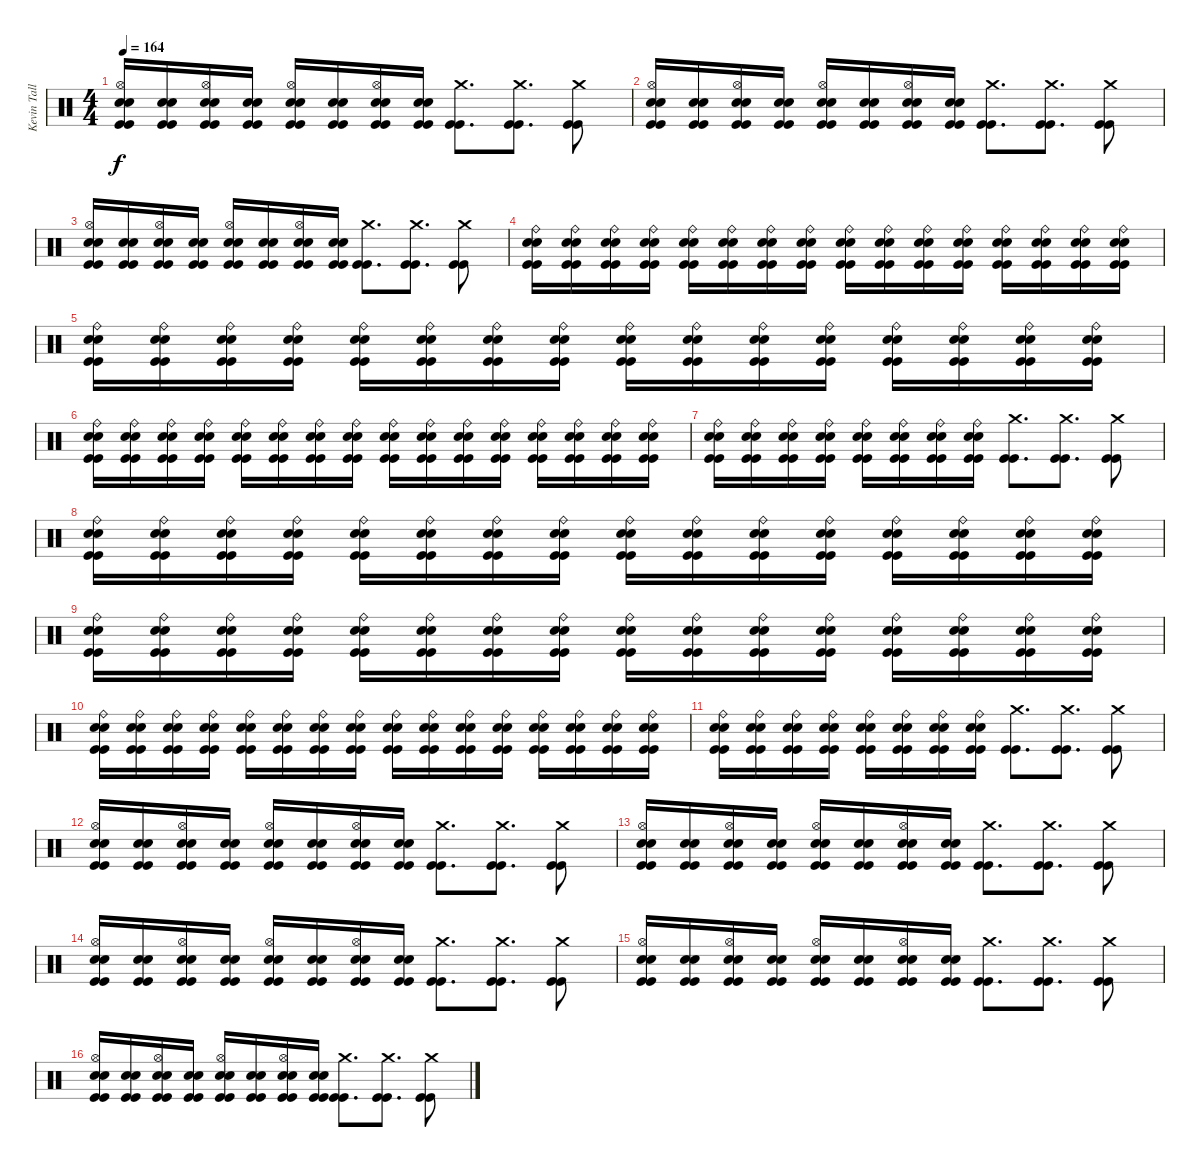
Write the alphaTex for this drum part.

\track ("Kevin Talley" "Kevin Tall") {instrument percussion}
\staff {score}
\articulation defaults
\ts (4 4)
\tempo 164
\clef neutral
\ks c
("Snare (hit) 2" "Snare (hit) 2" "Hi-Hat (open)" "Kick (hit)" "Kick (hit)").16{dy f} ("Snare (hit) 2" "Snare (hit) 2" "Kick (hit)" "Kick (hit)").16 ("Snare (hit) 2" "Snare (hit) 2" "Hi-Hat (open)" "Kick (hit)" "Kick (hit)").16 ("Snare (hit) 2" "Snare (hit) 2" "Kick (hit)" "Kick (hit)").16 ("Snare (hit) 2" "Snare (hit) 2" "Hi-Hat (open)" "Kick (hit)" "Kick (hit)").16 ("Snare (hit) 2" "Snare (hit) 2" "Kick (hit)" "Kick (hit)").16 ("Snare (hit) 2" "Snare (hit) 2" "Hi-Hat (open)" "Kick (hit)" "Kick (hit)").16 ("Snare (hit) 2" "Snare (hit) 2" "Kick (hit)" "Kick (hit)").16 ("Crash medium (hit)" "Kick (hit)" "Kick (hit)").8{d} ("Crash medium (hit)" "Kick (hit)" "Kick (hit)").8{d} ("Crash medium (hit)" "Kick (hit)" "Kick (hit)").8 |
("Snare (hit) 2" "Snare (hit) 2" "Hi-Hat (open)" "Kick (hit)" "Kick (hit)").16 ("Snare (hit) 2" "Snare (hit) 2" "Kick (hit)" "Kick (hit)").16 ("Snare (hit) 2" "Snare (hit) 2" "Hi-Hat (open)" "Kick (hit)" "Kick (hit)").16 ("Snare (hit) 2" "Snare (hit) 2" "Kick (hit)" "Kick (hit)").16 ("Snare (hit) 2" "Snare (hit) 2" "Hi-Hat (open)" "Kick (hit)" "Kick (hit)").16 ("Snare (hit) 2" "Snare (hit) 2" "Kick (hit)" "Kick (hit)").16 ("Snare (hit) 2" "Snare (hit) 2" "Hi-Hat (open)" "Kick (hit)" "Kick (hit)").16 ("Snare (hit) 2" "Snare (hit) 2" "Kick (hit)" "Kick (hit)").16 ("Crash medium (hit)" "Kick (hit)" "Kick (hit)").8{d} ("Crash medium (hit)" "Kick (hit)" "Kick (hit)").8{d} ("Crash medium (hit)" "Kick (hit)" "Kick (hit)").8 |
("Snare (hit) 2" "Snare (hit) 2" "Hi-Hat (open)" "Kick (hit)" "Kick (hit)").16 ("Snare (hit) 2" "Snare (hit) 2" "Kick (hit)" "Kick (hit)").16 ("Snare (hit) 2" "Snare (hit) 2" "Hi-Hat (open)" "Kick (hit)" "Kick (hit)").16 ("Snare (hit) 2" "Snare (hit) 2" "Kick (hit)" "Kick (hit)").16 ("Snare (hit) 2" "Snare (hit) 2" "Hi-Hat (open)" "Kick (hit)" "Kick (hit)").16 ("Snare (hit) 2" "Snare (hit) 2" "Kick (hit)" "Kick (hit)").16 ("Snare (hit) 2" "Snare (hit) 2" "Hi-Hat (open)" "Kick (hit)" "Kick (hit)").16 ("Snare (hit) 2" "Snare (hit) 2" "Kick (hit)" "Kick (hit)").16 ("Crash medium (hit)" "Kick (hit)" "Kick (hit)").8{d} ("Crash medium (hit)" "Kick (hit)" "Kick (hit)").8{d} ("Crash medium (hit)" "Kick (hit)" "Kick (hit)").8 |
("Snare (hit) 2" "Snare (hit) 2" "Ride (bell)" "Kick (hit)" "Kick (hit)").16 ("Snare (hit) 2" "Snare (hit) 2" "Ride (bell)" "Kick (hit)" "Kick (hit)").16 ("Snare (hit) 2" "Snare (hit) 2" "Ride (bell)" "Kick (hit)" "Kick (hit)").16 ("Snare (hit) 2" "Snare (hit) 2" "Ride (bell)" "Kick (hit)" "Kick (hit)").16 ("Snare (hit) 2" "Snare (hit) 2" "Ride (bell)" "Kick (hit)" "Kick (hit)").16 ("Snare (hit) 2" "Snare (hit) 2" "Ride (bell)" "Kick (hit)" "Kick (hit)").16 ("Snare (hit) 2" "Snare (hit) 2" "Ride (bell)" "Kick (hit)" "Kick (hit)").16 ("Snare (hit) 2" "Snare (hit) 2" "Ride (bell)" "Kick (hit)" "Kick (hit)").16 ("Snare (hit) 2" "Snare (hit) 2" "Ride (bell)" "Kick (hit)" "Kick (hit)").16 ("Snare (hit) 2" "Snare (hit) 2" "Ride (bell)" "Kick (hit)" "Kick (hit)").16 ("Snare (hit) 2" "Snare (hit) 2" "Ride (bell)" "Kick (hit)" "Kick (hit)").16 ("Snare (hit) 2" "Snare (hit) 2" "Ride (bell)" "Kick (hit)" "Kick (hit)").16 ("Snare (hit) 2" "Snare (hit) 2" "Ride (bell)" "Kick (hit)" "Kick (hit)").16 ("Snare (hit) 2" "Snare (hit) 2" "Ride (bell)" "Kick (hit)" "Kick (hit)").16 ("Snare (hit) 2" "Snare (hit) 2" "Ride (bell)" "Kick (hit)" "Kick (hit)").16 ("Snare (hit) 2" "Snare (hit) 2" "Ride (bell)" "Kick (hit)" "Kick (hit)").16 |
("Snare (hit) 2" "Snare (hit) 2" "Ride (bell)" "Kick (hit)" "Kick (hit)").16 ("Snare (hit) 2" "Snare (hit) 2" "Ride (bell)" "Kick (hit)" "Kick (hit)").16 ("Snare (hit) 2" "Snare (hit) 2" "Ride (bell)" "Kick (hit)" "Kick (hit)").16 ("Snare (hit) 2" "Snare (hit) 2" "Ride (bell)" "Kick (hit)" "Kick (hit)").16 ("Snare (hit) 2" "Snare (hit) 2" "Ride (bell)" "Kick (hit)" "Kick (hit)").16 ("Snare (hit) 2" "Snare (hit) 2" "Ride (bell)" "Kick (hit)" "Kick (hit)").16 ("Snare (hit) 2" "Snare (hit) 2" "Ride (bell)" "Kick (hit)" "Kick (hit)").16 ("Snare (hit) 2" "Snare (hit) 2" "Ride (bell)" "Kick (hit)" "Kick (hit)").16 ("Snare (hit) 2" "Snare (hit) 2" "Ride (bell)" "Kick (hit)" "Kick (hit)").16 ("Snare (hit) 2" "Snare (hit) 2" "Ride (bell)" "Kick (hit)" "Kick (hit)").16 ("Snare (hit) 2" "Snare (hit) 2" "Ride (bell)" "Kick (hit)" "Kick (hit)").16 ("Snare (hit) 2" "Snare (hit) 2" "Ride (bell)" "Kick (hit)" "Kick (hit)").16 ("Snare (hit) 2" "Snare (hit) 2" "Ride (bell)" "Kick (hit)" "Kick (hit)").16 ("Snare (hit) 2" "Snare (hit) 2" "Ride (bell)" "Kick (hit)" "Kick (hit)").16 ("Snare (hit) 2" "Snare (hit) 2" "Ride (bell)" "Kick (hit)" "Kick (hit)").16 ("Snare (hit) 2" "Snare (hit) 2" "Ride (bell)" "Kick (hit)" "Kick (hit)").16 |
("Snare (hit) 2" "Snare (hit) 2" "Ride (bell)" "Kick (hit)" "Kick (hit)").16 ("Snare (hit) 2" "Snare (hit) 2" "Ride (bell)" "Kick (hit)" "Kick (hit)").16 ("Snare (hit) 2" "Snare (hit) 2" "Ride (bell)" "Kick (hit)" "Kick (hit)").16 ("Snare (hit) 2" "Snare (hit) 2" "Ride (bell)" "Kick (hit)" "Kick (hit)").16 ("Snare (hit) 2" "Snare (hit) 2" "Ride (bell)" "Kick (hit)" "Kick (hit)").16 ("Snare (hit) 2" "Snare (hit) 2" "Ride (bell)" "Kick (hit)" "Kick (hit)").16 ("Snare (hit) 2" "Snare (hit) 2" "Ride (bell)" "Kick (hit)" "Kick (hit)").16 ("Snare (hit) 2" "Snare (hit) 2" "Ride (bell)" "Kick (hit)" "Kick (hit)").16 ("Snare (hit) 2" "Snare (hit) 2" "Ride (bell)" "Kick (hit)" "Kick (hit)").16 ("Snare (hit) 2" "Snare (hit) 2" "Ride (bell)" "Kick (hit)" "Kick (hit)").16 ("Snare (hit) 2" "Snare (hit) 2" "Ride (bell)" "Kick (hit)" "Kick (hit)").16 ("Snare (hit) 2" "Snare (hit) 2" "Ride (bell)" "Kick (hit)" "Kick (hit)").16 ("Snare (hit) 2" "Snare (hit) 2" "Ride (bell)" "Kick (hit)" "Kick (hit)").16 ("Snare (hit) 2" "Snare (hit) 2" "Ride (bell)" "Kick (hit)" "Kick (hit)").16 ("Snare (hit) 2" "Snare (hit) 2" "Ride (bell)" "Kick (hit)" "Kick (hit)").16 ("Snare (hit) 2" "Snare (hit) 2" "Ride (bell)" "Kick (hit)" "Kick (hit)").16 |
("Snare (hit) 2" "Snare (hit) 2" "Ride (bell)" "Kick (hit)" "Kick (hit)").16 ("Snare (hit) 2" "Snare (hit) 2" "Ride (bell)" "Kick (hit)" "Kick (hit)").16 ("Snare (hit) 2" "Snare (hit) 2" "Ride (bell)" "Kick (hit)" "Kick (hit)").16 ("Snare (hit) 2" "Snare (hit) 2" "Ride (bell)" "Kick (hit)" "Kick (hit)").16 ("Snare (hit) 2" "Snare (hit) 2" "Ride (bell)" "Kick (hit)" "Kick (hit)").16 ("Snare (hit) 2" "Snare (hit) 2" "Ride (bell)" "Kick (hit)" "Kick (hit)").16 ("Snare (hit) 2" "Snare (hit) 2" "Ride (bell)" "Kick (hit)" "Kick (hit)").16 ("Snare (hit) 2" "Snare (hit) 2" "Ride (bell)" "Kick (hit)" "Kick (hit)").16 ("Crash medium (hit)" "Kick (hit)" "Kick (hit)").8{d} ("Crash medium (hit)" "Kick (hit)" "Kick (hit)").8{d} ("Crash medium (hit)" "Kick (hit)" "Kick (hit)").8 |
("Snare (hit) 2" "Snare (hit) 2" "Ride (bell)" "Kick (hit)" "Kick (hit)").16 ("Snare (hit) 2" "Snare (hit) 2" "Ride (bell)" "Kick (hit)" "Kick (hit)").16 ("Snare (hit) 2" "Snare (hit) 2" "Ride (bell)" "Kick (hit)" "Kick (hit)").16 ("Snare (hit) 2" "Snare (hit) 2" "Ride (bell)" "Kick (hit)" "Kick (hit)").16 ("Snare (hit) 2" "Snare (hit) 2" "Ride (bell)" "Kick (hit)" "Kick (hit)").16 ("Snare (hit) 2" "Snare (hit) 2" "Ride (bell)" "Kick (hit)" "Kick (hit)").16 ("Snare (hit) 2" "Snare (hit) 2" "Ride (bell)" "Kick (hit)" "Kick (hit)").16 ("Snare (hit) 2" "Snare (hit) 2" "Ride (bell)" "Kick (hit)" "Kick (hit)").16 ("Snare (hit) 2" "Snare (hit) 2" "Ride (bell)" "Kick (hit)" "Kick (hit)").16 ("Snare (hit) 2" "Snare (hit) 2" "Ride (bell)" "Kick (hit)" "Kick (hit)").16 ("Snare (hit) 2" "Snare (hit) 2" "Ride (bell)" "Kick (hit)" "Kick (hit)").16 ("Snare (hit) 2" "Snare (hit) 2" "Ride (bell)" "Kick (hit)" "Kick (hit)").16 ("Snare (hit) 2" "Snare (hit) 2" "Ride (bell)" "Kick (hit)" "Kick (hit)").16 ("Snare (hit) 2" "Snare (hit) 2" "Ride (bell)" "Kick (hit)" "Kick (hit)").16 ("Snare (hit) 2" "Snare (hit) 2" "Ride (bell)" "Kick (hit)" "Kick (hit)").16 ("Snare (hit) 2" "Snare (hit) 2" "Ride (bell)" "Kick (hit)" "Kick (hit)").16 |
("Snare (hit) 2" "Snare (hit) 2" "Ride (bell)" "Kick (hit)" "Kick (hit)").16 ("Snare (hit) 2" "Snare (hit) 2" "Ride (bell)" "Kick (hit)" "Kick (hit)").16 ("Snare (hit) 2" "Snare (hit) 2" "Ride (bell)" "Kick (hit)" "Kick (hit)").16 ("Snare (hit) 2" "Snare (hit) 2" "Ride (bell)" "Kick (hit)" "Kick (hit)").16 ("Snare (hit) 2" "Snare (hit) 2" "Ride (bell)" "Kick (hit)" "Kick (hit)").16 ("Snare (hit) 2" "Snare (hit) 2" "Ride (bell)" "Kick (hit)" "Kick (hit)").16 ("Snare (hit) 2" "Snare (hit) 2" "Ride (bell)" "Kick (hit)" "Kick (hit)").16 ("Snare (hit) 2" "Snare (hit) 2" "Ride (bell)" "Kick (hit)" "Kick (hit)").16 ("Snare (hit) 2" "Snare (hit) 2" "Ride (bell)" "Kick (hit)" "Kick (hit)").16 ("Snare (hit) 2" "Snare (hit) 2" "Ride (bell)" "Kick (hit)" "Kick (hit)").16 ("Snare (hit) 2" "Snare (hit) 2" "Ride (bell)" "Kick (hit)" "Kick (hit)").16 ("Snare (hit) 2" "Snare (hit) 2" "Ride (bell)" "Kick (hit)" "Kick (hit)").16 ("Snare (hit) 2" "Snare (hit) 2" "Ride (bell)" "Kick (hit)" "Kick (hit)").16 ("Snare (hit) 2" "Snare (hit) 2" "Ride (bell)" "Kick (hit)" "Kick (hit)").16 ("Snare (hit) 2" "Snare (hit) 2" "Ride (bell)" "Kick (hit)" "Kick (hit)").16 ("Snare (hit) 2" "Snare (hit) 2" "Ride (bell)" "Kick (hit)" "Kick (hit)").16 |
("Snare (hit) 2" "Snare (hit) 2" "Ride (bell)" "Kick (hit)" "Kick (hit)").16 ("Snare (hit) 2" "Snare (hit) 2" "Ride (bell)" "Kick (hit)" "Kick (hit)").16 ("Snare (hit) 2" "Snare (hit) 2" "Ride (bell)" "Kick (hit)" "Kick (hit)").16 ("Snare (hit) 2" "Snare (hit) 2" "Ride (bell)" "Kick (hit)" "Kick (hit)").16 ("Snare (hit) 2" "Snare (hit) 2" "Ride (bell)" "Kick (hit)" "Kick (hit)").16 ("Snare (hit) 2" "Snare (hit) 2" "Ride (bell)" "Kick (hit)" "Kick (hit)").16 ("Snare (hit) 2" "Snare (hit) 2" "Ride (bell)" "Kick (hit)" "Kick (hit)").16 ("Snare (hit) 2" "Snare (hit) 2" "Ride (bell)" "Kick (hit)" "Kick (hit)").16 ("Snare (hit) 2" "Snare (hit) 2" "Ride (bell)" "Kick (hit)" "Kick (hit)").16 ("Snare (hit) 2" "Snare (hit) 2" "Ride (bell)" "Kick (hit)" "Kick (hit)").16 ("Snare (hit) 2" "Snare (hit) 2" "Ride (bell)" "Kick (hit)" "Kick (hit)").16 ("Snare (hit) 2" "Snare (hit) 2" "Ride (bell)" "Kick (hit)" "Kick (hit)").16 ("Snare (hit) 2" "Snare (hit) 2" "Ride (bell)" "Kick (hit)" "Kick (hit)").16 ("Snare (hit) 2" "Snare (hit) 2" "Ride (bell)" "Kick (hit)" "Kick (hit)").16 ("Snare (hit) 2" "Snare (hit) 2" "Ride (bell)" "Kick (hit)" "Kick (hit)").16 ("Snare (hit) 2" "Snare (hit) 2" "Ride (bell)" "Kick (hit)" "Kick (hit)").16 |
("Snare (hit) 2" "Snare (hit) 2" "Ride (bell)" "Kick (hit)" "Kick (hit)").16 ("Snare (hit) 2" "Snare (hit) 2" "Ride (bell)" "Kick (hit)" "Kick (hit)").16 ("Snare (hit) 2" "Snare (hit) 2" "Ride (bell)" "Kick (hit)" "Kick (hit)").16 ("Snare (hit) 2" "Snare (hit) 2" "Ride (bell)" "Kick (hit)" "Kick (hit)").16 ("Snare (hit) 2" "Snare (hit) 2" "Ride (bell)" "Kick (hit)" "Kick (hit)").16 ("Snare (hit) 2" "Snare (hit) 2" "Ride (bell)" "Kick (hit)" "Kick (hit)").16 ("Snare (hit) 2" "Snare (hit) 2" "Ride (bell)" "Kick (hit)" "Kick (hit)").16 ("Snare (hit) 2" "Snare (hit) 2" "Ride (bell)" "Kick (hit)" "Kick (hit)").16 ("Crash medium (hit)" "Kick (hit)" "Kick (hit)").8{d} ("Crash medium (hit)" "Kick (hit)" "Kick (hit)").8{d} ("Crash medium (hit)" "Kick (hit)" "Kick (hit)").8 |
("Snare (hit) 2" "Snare (hit) 2" "Hi-Hat (open)" "Kick (hit)" "Kick (hit)").16 ("Snare (hit) 2" "Snare (hit) 2" "Kick (hit)" "Kick (hit)").16 ("Snare (hit) 2" "Snare (hit) 2" "Hi-Hat (open)" "Kick (hit)" "Kick (hit)").16 ("Snare (hit) 2" "Snare (hit) 2" "Kick (hit)" "Kick (hit)").16 ("Snare (hit) 2" "Snare (hit) 2" "Hi-Hat (open)" "Kick (hit)" "Kick (hit)").16 ("Snare (hit) 2" "Snare (hit) 2" "Kick (hit)" "Kick (hit)").16 ("Snare (hit) 2" "Snare (hit) 2" "Hi-Hat (open)" "Kick (hit)" "Kick (hit)").16 ("Snare (hit) 2" "Snare (hit) 2" "Kick (hit)" "Kick (hit)").16 ("Crash medium (hit)" "Kick (hit)" "Kick (hit)").8{d} ("Crash medium (hit)" "Kick (hit)" "Kick (hit)").8{d} ("Crash medium (hit)" "Kick (hit)" "Kick (hit)").8 |
("Snare (hit) 2" "Snare (hit) 2" "Hi-Hat (open)" "Kick (hit)" "Kick (hit)").16 ("Snare (hit) 2" "Snare (hit) 2" "Kick (hit)" "Kick (hit)").16 ("Snare (hit) 2" "Snare (hit) 2" "Hi-Hat (open)" "Kick (hit)" "Kick (hit)").16 ("Snare (hit) 2" "Snare (hit) 2" "Kick (hit)" "Kick (hit)").16 ("Snare (hit) 2" "Snare (hit) 2" "Hi-Hat (open)" "Kick (hit)" "Kick (hit)").16 ("Snare (hit) 2" "Snare (hit) 2" "Kick (hit)" "Kick (hit)").16 ("Snare (hit) 2" "Snare (hit) 2" "Hi-Hat (open)" "Kick (hit)" "Kick (hit)").16 ("Snare (hit) 2" "Snare (hit) 2" "Kick (hit)" "Kick (hit)").16 ("Crash medium (hit)" "Kick (hit)" "Kick (hit)").8{d} ("Crash medium (hit)" "Kick (hit)" "Kick (hit)").8{d} ("Crash medium (hit)" "Kick (hit)" "Kick (hit)").8 |
("Snare (hit) 2" "Snare (hit) 2" "Hi-Hat (open)" "Kick (hit)" "Kick (hit)").16 ("Snare (hit) 2" "Snare (hit) 2" "Kick (hit)" "Kick (hit)").16 ("Snare (hit) 2" "Snare (hit) 2" "Hi-Hat (open)" "Kick (hit)" "Kick (hit)").16 ("Snare (hit) 2" "Snare (hit) 2" "Kick (hit)" "Kick (hit)").16 ("Snare (hit) 2" "Snare (hit) 2" "Hi-Hat (open)" "Kick (hit)" "Kick (hit)").16 ("Snare (hit) 2" "Snare (hit) 2" "Kick (hit)" "Kick (hit)").16 ("Snare (hit) 2" "Snare (hit) 2" "Hi-Hat (open)" "Kick (hit)" "Kick (hit)").16 ("Snare (hit) 2" "Snare (hit) 2" "Kick (hit)" "Kick (hit)").16 ("Crash medium (hit)" "Kick (hit)" "Kick (hit)").8{d} ("Crash medium (hit)" "Kick (hit)" "Kick (hit)").8{d} ("Crash medium (hit)" "Kick (hit)" "Kick (hit)").8 |
("Snare (hit) 2" "Snare (hit) 2" "Hi-Hat (open)" "Kick (hit)" "Kick (hit)").16 ("Snare (hit) 2" "Snare (hit) 2" "Kick (hit)" "Kick (hit)").16 ("Snare (hit) 2" "Snare (hit) 2" "Hi-Hat (open)" "Kick (hit)" "Kick (hit)").16 ("Snare (hit) 2" "Snare (hit) 2" "Kick (hit)" "Kick (hit)").16 ("Snare (hit) 2" "Snare (hit) 2" "Hi-Hat (open)" "Kick (hit)" "Kick (hit)").16 ("Snare (hit) 2" "Snare (hit) 2" "Kick (hit)" "Kick (hit)").16 ("Snare (hit) 2" "Snare (hit) 2" "Hi-Hat (open)" "Kick (hit)" "Kick (hit)").16 ("Snare (hit) 2" "Snare (hit) 2" "Kick (hit)" "Kick (hit)").16 ("Crash medium (hit)" "Kick (hit)" "Kick (hit)").8{d} ("Crash medium (hit)" "Kick (hit)" "Kick (hit)").8{d} ("Crash medium (hit)" "Kick (hit)" "Kick (hit)").8 |
("Snare (hit) 2" "Snare (hit) 2" "Hi-Hat (open)" "Kick (hit)" "Kick (hit)").16 ("Snare (hit) 2" "Snare (hit) 2" "Kick (hit)" "Kick (hit)").16 ("Snare (hit) 2" "Snare (hit) 2" "Hi-Hat (open)" "Kick (hit)" "Kick (hit)").16 ("Snare (hit) 2" "Snare (hit) 2" "Kick (hit)" "Kick (hit)").16 ("Snare (hit) 2" "Snare (hit) 2" "Hi-Hat (open)" "Kick (hit)" "Kick (hit)").16 ("Snare (hit) 2" "Snare (hit) 2" "Kick (hit)" "Kick (hit)").16 ("Snare (hit) 2" "Snare (hit) 2" "Hi-Hat (open)" "Kick (hit)" "Kick (hit)").16 ("Snare (hit) 2" "Snare (hit) 2" "Kick (hit)" "Kick (hit)").16 ("Crash medium (hit)" "Kick (hit)" "Kick (hit)").8{d} ("Crash medium (hit)" "Kick (hit)" "Kick (hit)").8{d} ("Crash medium (hit)" "Kick (hit)" "Kick (hit)").8
